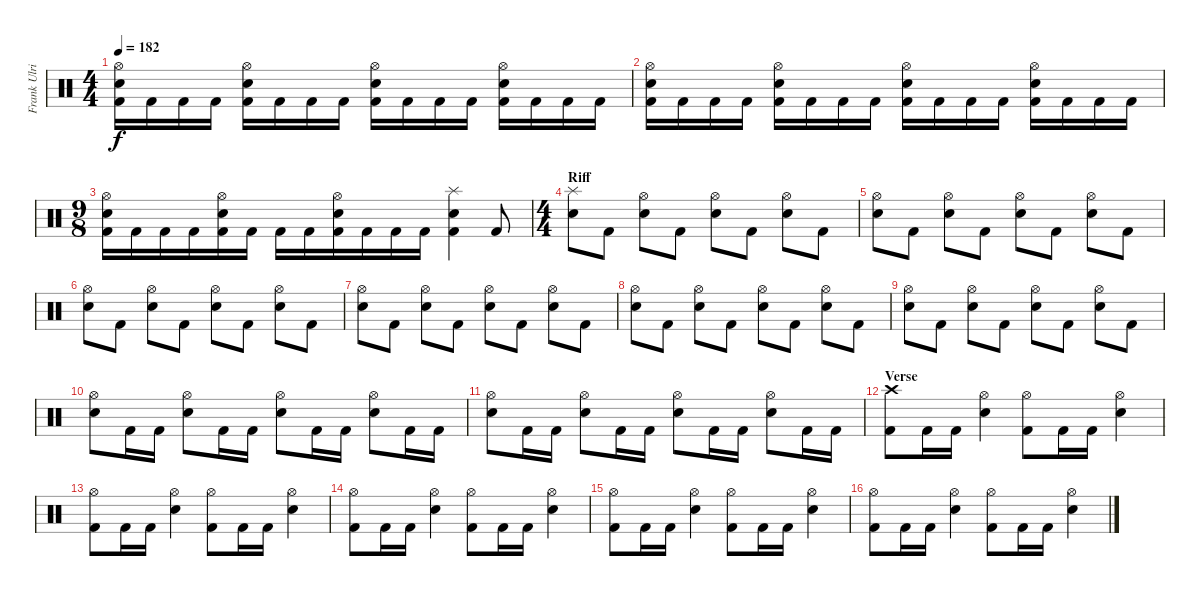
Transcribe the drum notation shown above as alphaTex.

\track ("Frank Ulrich" "Frank Ulri") {instrument percussion}
\staff {score}
\articulation defaults
\ts (4 4)
\tempo 182
\clef neutral
\ks c
("Hi-Hat (open)" "Snare (hit) 2" "Kick (hit) 2").16{dy f} "Kick (hit) 2".16 "Kick (hit) 2".16 "Kick (hit) 2".16 ("Hi-Hat (open)" "Snare (hit) 2" "Kick (hit) 2").16 "Kick (hit) 2".16 "Kick (hit) 2".16 "Kick (hit) 2".16 ("Hi-Hat (open)" "Snare (hit) 2" "Kick (hit) 2").16 "Kick (hit) 2".16 "Kick (hit) 2".16 "Kick (hit) 2".16 ("Hi-Hat (open)" "Snare (hit) 2" "Kick (hit) 2").16 "Kick (hit) 2".16 "Kick (hit) 2".16 "Kick (hit) 2".16 |
("Hi-Hat (open)" "Snare (hit) 2" "Kick (hit) 2").16 "Kick (hit) 2".16 "Kick (hit) 2".16 "Kick (hit) 2".16 ("Hi-Hat (open)" "Snare (hit) 2" "Kick (hit) 2").16 "Kick (hit) 2".16 "Kick (hit) 2".16 "Kick (hit) 2".16 ("Hi-Hat (open)" "Snare (hit) 2" "Kick (hit) 2").16 "Kick (hit) 2".16 "Kick (hit) 2".16 "Kick (hit) 2".16 ("Hi-Hat (open)" "Snare (hit) 2" "Kick (hit) 2").16 "Kick (hit) 2".16 "Kick (hit) 2".16 "Kick (hit) 2".16 |
\ts (9 8)
("Hi-Hat (open)" "Snare (hit) 2" "Kick (hit) 2").16 "Kick (hit) 2".16 "Kick (hit) 2".16 "Kick (hit) 2".16 ("Hi-Hat (open)" "Snare (hit) 2" "Kick (hit) 2").16 "Kick (hit) 2".16 "Kick (hit) 2".16 "Kick (hit) 2".16 ("Hi-Hat (open)" "Snare (hit) 2" "Kick (hit) 2").16 "Kick (hit) 2".16 "Kick (hit) 2".16 "Kick (hit) 2".16 ("Splash (hit)" "Snare (hit) 2" "Kick (hit) 2").4 "Kick (hit) 2".8 |
\ts (4 4)
\section ("" "Riff")
("Splash (hit)" "Snare (hit) 2").8 "Kick (hit) 2".8 ("Hi-Hat (open)" "Snare (hit) 2").8 "Kick (hit) 2".8 ("Hi-Hat (open)" "Snare (hit) 2").8 "Kick (hit) 2".8 ("Hi-Hat (open)" "Snare (hit) 2").8 "Kick (hit) 2".8 |
("Hi-Hat (open)" "Snare (hit) 2").8 "Kick (hit) 2".8 ("Hi-Hat (open)" "Snare (hit) 2").8 "Kick (hit) 2".8 ("Hi-Hat (open)" "Snare (hit) 2").8 "Kick (hit) 2".8 ("Hi-Hat (open)" "Snare (hit) 2").8 "Kick (hit) 2".8 |
("Hi-Hat (open)" "Snare (hit) 2").8 "Kick (hit) 2".8 ("Hi-Hat (open)" "Snare (hit) 2").8 "Kick (hit) 2".8 ("Hi-Hat (open)" "Snare (hit) 2").8 "Kick (hit) 2".8 ("Hi-Hat (open)" "Snare (hit) 2").8 "Kick (hit) 2".8 |
("Hi-Hat (open)" "Snare (hit) 2").8 "Kick (hit) 2".8 ("Hi-Hat (open)" "Snare (hit) 2").8 "Kick (hit) 2".8 ("Hi-Hat (open)" "Snare (hit) 2").8 "Kick (hit) 2".8 ("Hi-Hat (open)" "Snare (hit) 2").8 "Kick (hit) 2".8 |
("Hi-Hat (open)" "Snare (hit) 2").8 "Kick (hit) 2".8 ("Hi-Hat (open)" "Snare (hit) 2").8 "Kick (hit) 2".8 ("Hi-Hat (open)" "Snare (hit) 2").8 "Kick (hit) 2".8 ("Hi-Hat (open)" "Snare (hit) 2").8 "Kick (hit) 2".8 |
("Hi-Hat (open)" "Snare (hit) 2").8 "Kick (hit) 2".8 ("Hi-Hat (open)" "Snare (hit) 2").8 "Kick (hit) 2".8 ("Hi-Hat (open)" "Snare (hit) 2").8 "Kick (hit) 2".8 ("Hi-Hat (open)" "Snare (hit) 2").8 "Kick (hit) 2".8 |
("Hi-Hat (open)" "Snare (hit) 2").8 "Kick (hit) 2".16 "Kick (hit) 2".16 ("Hi-Hat (open)" "Snare (hit) 2").8 "Kick (hit) 2".16 "Kick (hit) 2".16 ("Hi-Hat (open)" "Snare (hit) 2").8 "Kick (hit) 2".16 "Kick (hit) 2".16 ("Hi-Hat (open)" "Snare (hit) 2").8 "Kick (hit) 2".16 "Kick (hit) 2".16 |
("Hi-Hat (open)" "Snare (hit) 2").8 "Kick (hit) 2".16 "Kick (hit) 2".16 ("Hi-Hat (open)" "Snare (hit) 2").8 "Kick (hit) 2".16 "Kick (hit) 2".16 ("Hi-Hat (open)" "Snare (hit) 2").8 "Kick (hit) 2".16 "Kick (hit) 2".16 ("Hi-Hat (open)" "Snare (hit) 2").8 "Kick (hit) 2".16 "Kick (hit) 2".16 |
\section ("" "Verse")
("Crash high (hit)" "Kick (hit) 2").8 "Kick (hit) 2".16 "Kick (hit) 2".16 ("Hi-Hat (open)" "Snare (hit) 2").4 ("Hi-Hat (open)" "Kick (hit) 2").8 "Kick (hit) 2".16 "Kick (hit) 2".16 ("Hi-Hat (open)" "Snare (hit) 2").4 |
("Hi-Hat (open)" "Kick (hit) 2").8 "Kick (hit) 2".16 "Kick (hit) 2".16 ("Hi-Hat (open)" "Snare (hit) 2").4 ("Hi-Hat (open)" "Kick (hit) 2").8 "Kick (hit) 2".16 "Kick (hit) 2".16 ("Hi-Hat (open)" "Snare (hit) 2").4 |
("Hi-Hat (open)" "Kick (hit) 2").8 "Kick (hit) 2".16 "Kick (hit) 2".16 ("Hi-Hat (open)" "Snare (hit) 2").4 ("Hi-Hat (open)" "Kick (hit) 2").8 "Kick (hit) 2".16 "Kick (hit) 2".16 ("Hi-Hat (open)" "Snare (hit) 2").4 |
("Hi-Hat (open)" "Kick (hit) 2").8 "Kick (hit) 2".16 "Kick (hit) 2".16 ("Hi-Hat (open)" "Snare (hit) 2").4 ("Hi-Hat (open)" "Kick (hit) 2").8 "Kick (hit) 2".16 "Kick (hit) 2".16 ("Hi-Hat (open)" "Snare (hit) 2").4 |
("Hi-Hat (open)" "Kick (hit) 2").8 "Kick (hit) 2".16 "Kick (hit) 2".16 ("Hi-Hat (open)" "Snare (hit) 2").4 ("Hi-Hat (open)" "Kick (hit) 2").8 "Kick (hit) 2".16 "Kick (hit) 2".16 ("Hi-Hat (open)" "Snare (hit) 2").4
